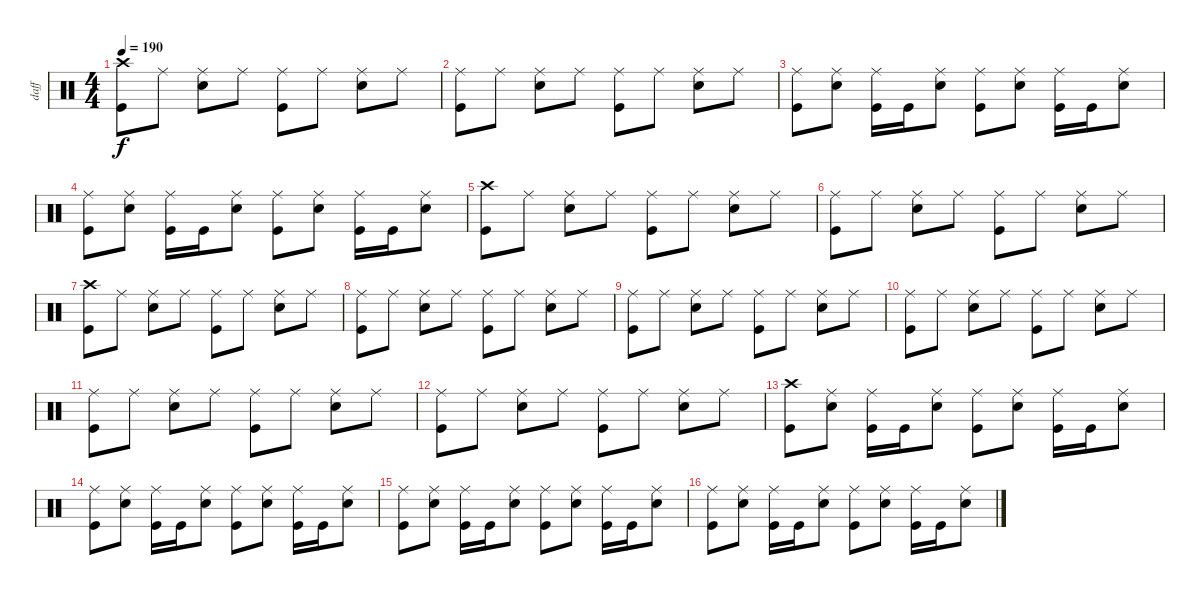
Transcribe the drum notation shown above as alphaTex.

\track ("daff" "daff") {instrument percussion}
\staff {score}
\articulation defaults
\ts (4 4)
\tempo 190
\clef neutral
\ks c
("Crash high (hit)" "Kick (hit)").8{dy f} "Ride (middle)".8 ("Ride (middle)" "Electric Snare (hit)").8 "Ride (middle)".8 ("Ride (middle)" "Kick (hit)").8 "Ride (middle)".8 ("Ride (middle)" "Electric Snare (hit)").8 "Ride (middle)".8 |
("Ride (middle)" "Kick (hit)").8 "Ride (middle)".8 ("Ride (middle)" "Electric Snare (hit)").8 "Ride (middle)".8 ("Ride (middle)" "Kick (hit)").8 "Ride (middle)".8 ("Ride (middle)" "Electric Snare (hit)").8 "Ride (middle)".8 |
("Ride (middle)" "Kick (hit)").8 ("Ride (middle)" "Electric Snare (hit)").8 ("Ride (middle)" "Kick (hit)").16 "Kick (hit)".16 ("Ride (middle)" "Electric Snare (hit)").8 ("Ride (middle)" "Kick (hit)").8 ("Ride (middle)" "Electric Snare (hit)").8 ("Ride (middle)" "Kick (hit)").16 "Kick (hit)".16 ("Ride (middle)" "Electric Snare (hit)").8 |
("Ride (middle)" "Kick (hit)").8 ("Ride (middle)" "Electric Snare (hit)").8 ("Ride (middle)" "Kick (hit)").16 "Kick (hit)".16 ("Ride (middle)" "Electric Snare (hit)").8 ("Ride (middle)" "Kick (hit)").8 ("Ride (middle)" "Electric Snare (hit)").8 ("Ride (middle)" "Kick (hit)").16 "Kick (hit)".16 ("Ride (middle)" "Electric Snare (hit)").8 |
("Crash high (hit)" "Kick (hit)").8 "Ride (middle)".8 ("Ride (middle)" "Electric Snare (hit)").8 "Ride (middle)".8 ("Ride (middle)" "Kick (hit)").8 "Ride (middle)".8 ("Ride (middle)" "Electric Snare (hit)").8 "Ride (middle)".8 |
("Ride (middle)" "Kick (hit)").8 "Ride (middle)".8 ("Ride (middle)" "Electric Snare (hit)").8 "Ride (middle)".8 ("Ride (middle)" "Kick (hit)").8 "Ride (middle)".8 ("Ride (middle)" "Electric Snare (hit)").8 "Ride (middle)".8 |
("Crash high (hit)" "Kick (hit)").8 "Ride (middle)".8 ("Ride (middle)" "Electric Snare (hit)").8 "Ride (middle)".8 ("Ride (middle)" "Kick (hit)").8 "Ride (middle)".8 ("Ride (middle)" "Electric Snare (hit)").8 "Ride (middle)".8 |
("Ride (middle)" "Kick (hit)").8 "Ride (middle)".8 ("Ride (middle)" "Electric Snare (hit)").8 "Ride (middle)".8 ("Ride (middle)" "Kick (hit)").8 "Ride (middle)".8 ("Ride (middle)" "Electric Snare (hit)").8 "Ride (middle)".8 |
("Ride (middle)" "Kick (hit)").8 "Ride (middle)".8 ("Ride (middle)" "Electric Snare (hit)").8 "Ride (middle)".8 ("Ride (middle)" "Kick (hit)").8 "Ride (middle)".8 ("Ride (middle)" "Electric Snare (hit)").8 "Ride (middle)".8 |
("Ride (middle)" "Kick (hit)").8 "Ride (middle)".8 ("Ride (middle)" "Electric Snare (hit)").8 "Ride (middle)".8 ("Ride (middle)" "Kick (hit)").8 "Ride (middle)".8 ("Ride (middle)" "Electric Snare (hit)").8 "Ride (middle)".8 |
("Ride (middle)" "Kick (hit)").8 "Ride (middle)".8 ("Ride (middle)" "Electric Snare (hit)").8 "Ride (middle)".8 ("Ride (middle)" "Kick (hit)").8 "Ride (middle)".8 ("Ride (middle)" "Electric Snare (hit)").8 "Ride (middle)".8 |
("Ride (middle)" "Kick (hit)").8 "Ride (middle)".8 ("Ride (middle)" "Electric Snare (hit)").8 "Ride (middle)".8 ("Ride (middle)" "Kick (hit)").8 "Ride (middle)".8 ("Ride (middle)" "Electric Snare (hit)").8 "Ride (middle)".8 |
("Crash high (hit)" "Kick (hit)").8 ("Ride (middle)" "Electric Snare (hit)").8 ("Ride (middle)" "Kick (hit)").16 "Kick (hit)".16 ("Ride (middle)" "Electric Snare (hit)").8 ("Ride (middle)" "Kick (hit)").8 ("Ride (middle)" "Electric Snare (hit)").8 ("Ride (middle)" "Kick (hit)").16 "Kick (hit)".16 ("Ride (middle)" "Electric Snare (hit)").8 |
("Ride (middle)" "Kick (hit)").8 ("Ride (middle)" "Electric Snare (hit)").8 ("Ride (middle)" "Kick (hit)").16 "Kick (hit)".16 ("Ride (middle)" "Electric Snare (hit)").8 ("Ride (middle)" "Kick (hit)").8 ("Ride (middle)" "Electric Snare (hit)").8 ("Ride (middle)" "Kick (hit)").16 "Kick (hit)".16 ("Ride (middle)" "Electric Snare (hit)").8 |
("Ride (middle)" "Kick (hit)").8 ("Ride (middle)" "Electric Snare (hit)").8 ("Ride (middle)" "Kick (hit)").16 "Kick (hit)".16 ("Ride (middle)" "Electric Snare (hit)").8 ("Ride (middle)" "Kick (hit)").8 ("Ride (middle)" "Electric Snare (hit)").8 ("Ride (middle)" "Kick (hit)").16 "Kick (hit)".16 ("Ride (middle)" "Electric Snare (hit)").8 |
("Ride (middle)" "Kick (hit)").8 ("Ride (middle)" "Electric Snare (hit)").8 ("Ride (middle)" "Kick (hit)").16 "Kick (hit)".16 ("Ride (middle)" "Electric Snare (hit)").8 ("Ride (middle)" "Kick (hit)").8 ("Ride (middle)" "Electric Snare (hit)").8 ("Ride (middle)" "Kick (hit)").16 "Kick (hit)".16 ("Ride (middle)" "Electric Snare (hit)").8
